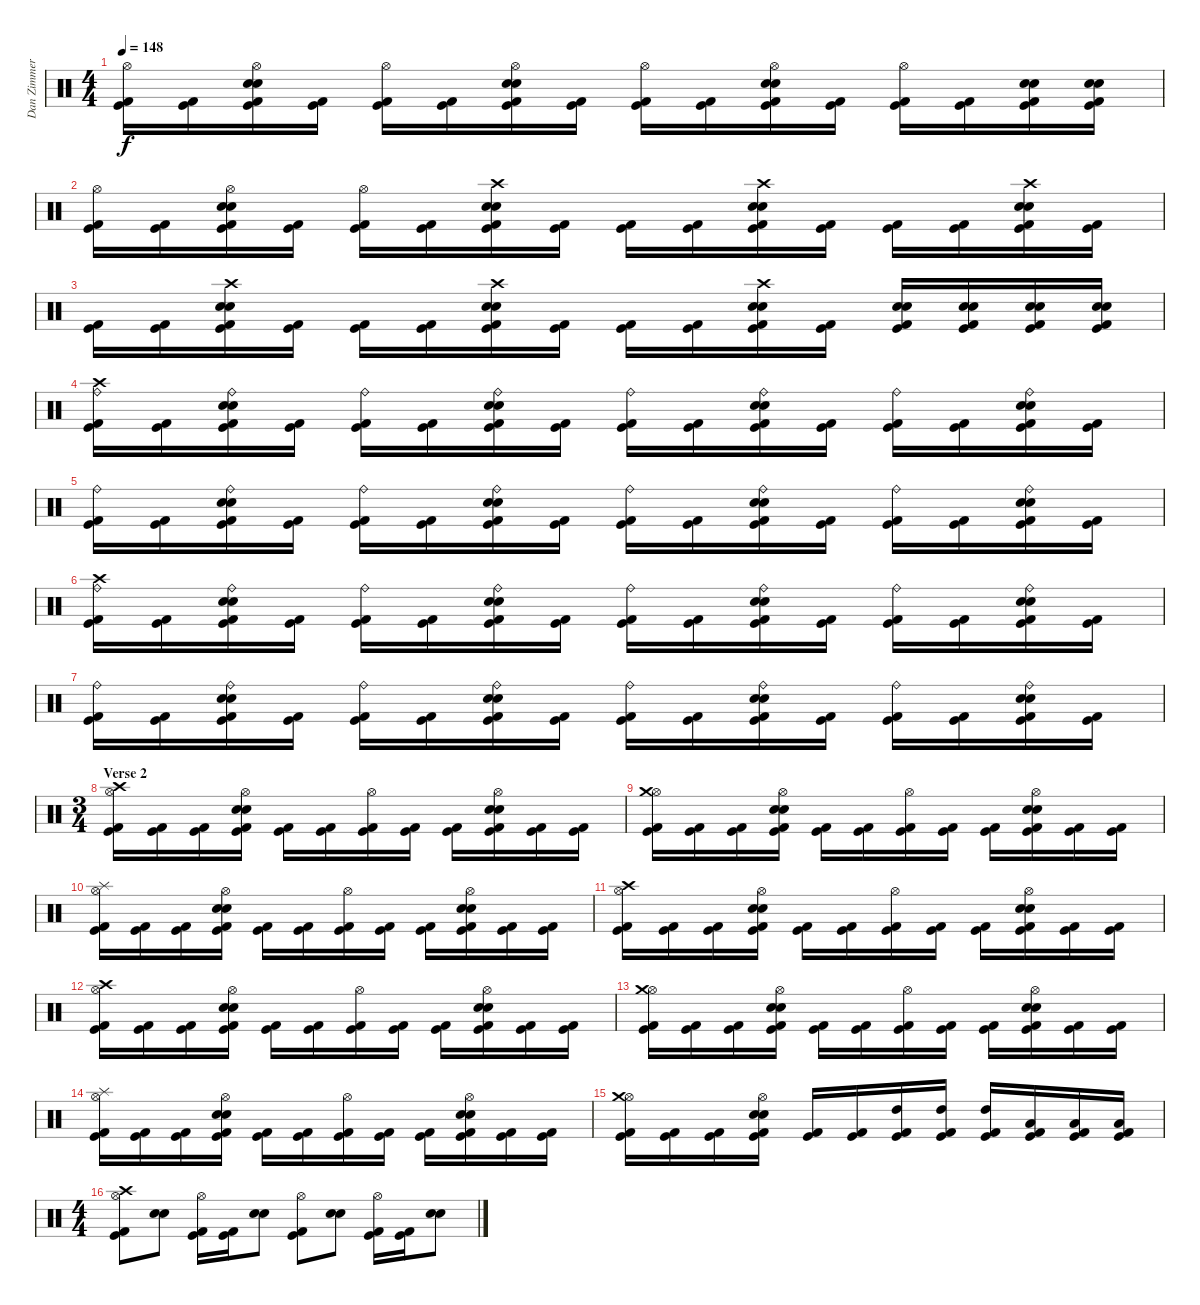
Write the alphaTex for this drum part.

\track ("Dan Zimmerman<Drum>" "Dan Zimmer") {instrument percussion}
\staff {score}
\articulation defaults
\ts (4 4)
\tempo 148
\clef neutral
\ks c
("Hi-Hat (open)" "Kick (hit) 2" "Kick (hit)").16{dy f} ("Kick (hit) 2" "Kick (hit)").16 ("Hi-Hat (open)" "Snare (hit) 2" "Electric Snare (hit)" "Kick (hit) 2" "Kick (hit)").16 ("Kick (hit) 2" "Kick (hit)").16 ("Hi-Hat (open)" "Kick (hit) 2" "Kick (hit)").16 ("Kick (hit) 2" "Kick (hit)").16 ("Hi-Hat (open)" "Snare (hit) 2" "Electric Snare (hit)" "Kick (hit) 2" "Kick (hit)").16 ("Kick (hit) 2" "Kick (hit)").16 ("Hi-Hat (open)" "Kick (hit) 2" "Kick (hit)").16 ("Kick (hit) 2" "Kick (hit)").16 ("Hi-Hat (open)" "Snare (hit) 2" "Electric Snare (hit)" "Kick (hit) 2" "Kick (hit)").16 ("Kick (hit) 2" "Kick (hit)").16 ("Hi-Hat (open)" "Kick (hit) 2" "Kick (hit)").16 ("Kick (hit) 2" "Kick (hit)").16 ("Snare (hit) 2" "Electric Snare (hit)" "Kick (hit) 2" "Kick (hit)").16 ("Snare (hit) 2" "Electric Snare (hit)" "Kick (hit) 2" "Kick (hit)").16 |
("Hi-Hat (open)" "Kick (hit) 2" "Kick (hit)").16 ("Kick (hit) 2" "Kick (hit)").16 ("Hi-Hat (open)" "Snare (hit) 2" "Electric Snare (hit)" "Kick (hit) 2" "Kick (hit)").16 ("Kick (hit) 2" "Kick (hit)").16 ("Hi-Hat (open)" "Kick (hit) 2" "Kick (hit)").16 ("Kick (hit) 2" "Kick (hit)").16 ("Crash high (hit)" "Snare (hit) 2" "Electric Snare (hit)" "Kick (hit) 2" "Kick (hit)").16 ("Kick (hit) 2" "Kick (hit)").16 ("Kick (hit) 2" "Kick (hit)").16 ("Kick (hit) 2" "Kick (hit)").16 ("Crash high (hit)" "Snare (hit) 2" "Electric Snare (hit)" "Kick (hit) 2" "Kick (hit)").16 ("Kick (hit) 2" "Kick (hit)").16 ("Kick (hit) 2" "Kick (hit)").16 ("Kick (hit) 2" "Kick (hit)").16 ("Crash high (hit)" "Snare (hit) 2" "Electric Snare (hit)" "Kick (hit) 2" "Kick (hit)").16 ("Kick (hit) 2" "Kick (hit)").16 |
("Kick (hit) 2" "Kick (hit)").16 ("Kick (hit) 2" "Kick (hit)").16 ("Crash high (hit)" "Snare (hit) 2" "Electric Snare (hit)" "Kick (hit) 2" "Kick (hit)").16 ("Kick (hit) 2" "Kick (hit)").16 ("Kick (hit) 2" "Kick (hit)").16 ("Kick (hit) 2" "Kick (hit)").16 ("Crash high (hit)" "Snare (hit) 2" "Electric Snare (hit)" "Kick (hit) 2" "Kick (hit)").16 ("Kick (hit) 2" "Kick (hit)").16 ("Kick (hit) 2" "Kick (hit)").16 ("Kick (hit) 2" "Kick (hit)").16 ("Crash high (hit)" "Snare (hit) 2" "Electric Snare (hit)" "Kick (hit) 2" "Kick (hit)").16 ("Kick (hit) 2" "Kick (hit)").16 ("Snare (hit) 2" "Electric Snare (hit)" "Kick (hit) 2" "Kick (hit)").16 ("Snare (hit) 2" "Electric Snare (hit)" "Kick (hit) 2" "Kick (hit)").16 ("Snare (hit) 2" "Electric Snare (hit)" "Kick (hit) 2" "Kick (hit)").16 ("Snare (hit) 2" "Electric Snare (hit)" "Kick (hit) 2" "Kick (hit)").16 |
("Ride (bell)" "Crash high (hit)" "Kick (hit) 2" "Kick (hit)").16 ("Kick (hit) 2" "Kick (hit)").16 ("Ride (bell)" "Snare (hit) 2" "Electric Snare (hit)" "Kick (hit) 2" "Kick (hit)").16 ("Kick (hit) 2" "Kick (hit)").16 ("Ride (bell)" "Kick (hit) 2" "Kick (hit)").16 ("Kick (hit) 2" "Kick (hit)").16 ("Ride (bell)" "Snare (hit) 2" "Electric Snare (hit)" "Kick (hit) 2" "Kick (hit)").16 ("Kick (hit) 2" "Kick (hit)").16 ("Ride (bell)" "Kick (hit) 2" "Kick (hit)").16 ("Kick (hit) 2" "Kick (hit)").16 ("Ride (bell)" "Snare (hit) 2" "Electric Snare (hit)" "Kick (hit) 2" "Kick (hit)").16 ("Kick (hit) 2" "Kick (hit)").16 ("Ride (bell)" "Kick (hit) 2" "Kick (hit)").16 ("Kick (hit) 2" "Kick (hit)").16 ("Ride (bell)" "Snare (hit) 2" "Electric Snare (hit)" "Kick (hit) 2" "Kick (hit)").16 ("Kick (hit) 2" "Kick (hit)").16 |
("Ride (bell)" "Kick (hit) 2" "Kick (hit)").16 ("Kick (hit) 2" "Kick (hit)").16 ("Ride (bell)" "Snare (hit) 2" "Electric Snare (hit)" "Kick (hit) 2" "Kick (hit)").16 ("Kick (hit) 2" "Kick (hit)").16 ("Ride (bell)" "Kick (hit) 2" "Kick (hit)").16 ("Kick (hit) 2" "Kick (hit)").16 ("Ride (bell)" "Snare (hit) 2" "Electric Snare (hit)" "Kick (hit) 2" "Kick (hit)").16 ("Kick (hit) 2" "Kick (hit)").16 ("Ride (bell)" "Kick (hit) 2" "Kick (hit)").16 ("Kick (hit) 2" "Kick (hit)").16 ("Ride (bell)" "Snare (hit) 2" "Electric Snare (hit)" "Kick (hit) 2" "Kick (hit)").16 ("Kick (hit) 2" "Kick (hit)").16 ("Ride (bell)" "Kick (hit) 2" "Kick (hit)").16 ("Kick (hit) 2" "Kick (hit)").16 ("Ride (bell)" "Snare (hit) 2" "Electric Snare (hit)" "Kick (hit) 2" "Kick (hit)").16 ("Kick (hit) 2" "Kick (hit)").16 |
("Ride (bell)" "Crash high (hit)" "Kick (hit) 2" "Kick (hit)").16 ("Kick (hit) 2" "Kick (hit)").16 ("Ride (bell)" "Snare (hit) 2" "Electric Snare (hit)" "Kick (hit) 2" "Kick (hit)").16 ("Kick (hit) 2" "Kick (hit)").16 ("Ride (bell)" "Kick (hit) 2" "Kick (hit)").16 ("Kick (hit) 2" "Kick (hit)").16 ("Ride (bell)" "Snare (hit) 2" "Electric Snare (hit)" "Kick (hit) 2" "Kick (hit)").16 ("Kick (hit) 2" "Kick (hit)").16 ("Ride (bell)" "Kick (hit) 2" "Kick (hit)").16 ("Kick (hit) 2" "Kick (hit)").16 ("Ride (bell)" "Snare (hit) 2" "Electric Snare (hit)" "Kick (hit) 2" "Kick (hit)").16 ("Kick (hit) 2" "Kick (hit)").16 ("Ride (bell)" "Kick (hit) 2" "Kick (hit)").16 ("Kick (hit) 2" "Kick (hit)").16 ("Ride (bell)" "Snare (hit) 2" "Electric Snare (hit)" "Kick (hit) 2" "Kick (hit)").16 ("Kick (hit) 2" "Kick (hit)").16 |
("Ride (bell)" "Kick (hit) 2" "Kick (hit)").16 ("Kick (hit) 2" "Kick (hit)").16 ("Ride (bell)" "Snare (hit) 2" "Electric Snare (hit)" "Kick (hit) 2" "Kick (hit)").16 ("Kick (hit) 2" "Kick (hit)").16 ("Ride (bell)" "Kick (hit) 2" "Kick (hit)").16 ("Kick (hit) 2" "Kick (hit)").16 ("Ride (bell)" "Snare (hit) 2" "Electric Snare (hit)" "Kick (hit) 2" "Kick (hit)").16 ("Kick (hit) 2" "Kick (hit)").16 ("Ride (bell)" "Kick (hit) 2" "Kick (hit)").16 ("Kick (hit) 2" "Kick (hit)").16 ("Ride (bell)" "Snare (hit) 2" "Electric Snare (hit)" "Kick (hit) 2" "Kick (hit)").16 ("Kick (hit) 2" "Kick (hit)").16 ("Ride (bell)" "Kick (hit) 2" "Kick (hit)").16 ("Kick (hit) 2" "Kick (hit)").16 ("Ride (bell)" "Snare (hit) 2" "Electric Snare (hit)" "Kick (hit) 2" "Kick (hit)").16 ("Kick (hit) 2" "Kick (hit)").16 |
\ts (3 4)
\section ("" "Verse 2")
("Hi-Hat (open)" "Crash high (hit)" "Kick (hit) 2" "Kick (hit)").16 ("Kick (hit) 2" "Kick (hit)").16 ("Kick (hit) 2" "Kick (hit)").16 ("Hi-Hat (open)" "Electric Snare (hit)" "Snare (hit) 2" "Kick (hit) 2" "Kick (hit)").16 ("Kick (hit) 2" "Kick (hit)").16 ("Kick (hit) 2" "Kick (hit)").16 ("Hi-Hat (open)" "Kick (hit) 2" "Kick (hit)").16 ("Kick (hit) 2" "Kick (hit)").16 ("Kick (hit) 2" "Kick (hit)").16 ("Hi-Hat (open)" "Electric Snare (hit)" "Snare (hit) 2" "Kick (hit) 2" "Kick (hit)").16 ("Kick (hit) 2" "Kick (hit)").16 ("Kick (hit) 2" "Kick (hit)").16 |
("Hi-Hat (open)" "Crash medium (hit)" "Kick (hit) 2" "Kick (hit)").16 ("Kick (hit) 2" "Kick (hit)").16 ("Kick (hit) 2" "Kick (hit)").16 ("Hi-Hat (open)" "Electric Snare (hit)" "Snare (hit) 2" "Kick (hit) 2" "Kick (hit)").16 ("Kick (hit) 2" "Kick (hit)").16 ("Kick (hit) 2" "Kick (hit)").16 ("Hi-Hat (open)" "Kick (hit) 2" "Kick (hit)").16 ("Kick (hit) 2" "Kick (hit)").16 ("Kick (hit) 2" "Kick (hit)").16 ("Hi-Hat (open)" "Electric Snare (hit)" "Snare (hit) 2" "Kick (hit) 2" "Kick (hit)").16 ("Kick (hit) 2" "Kick (hit)").16 ("Kick (hit) 2" "Kick (hit)").16 |
("Hi-Hat (open)" "Splash (hit)" "Kick (hit) 2" "Kick (hit)").16 ("Kick (hit) 2" "Kick (hit)").16 ("Kick (hit) 2" "Kick (hit)").16 ("Hi-Hat (open)" "Electric Snare (hit)" "Snare (hit) 2" "Kick (hit) 2" "Kick (hit)").16 ("Kick (hit) 2" "Kick (hit)").16 ("Kick (hit) 2" "Kick (hit)").16 ("Hi-Hat (open)" "Kick (hit) 2" "Kick (hit)").16 ("Kick (hit) 2" "Kick (hit)").16 ("Kick (hit) 2" "Kick (hit)").16 ("Hi-Hat (open)" "Electric Snare (hit)" "Snare (hit) 2" "Kick (hit) 2" "Kick (hit)").16 ("Kick (hit) 2" "Kick (hit)").16 ("Kick (hit) 2" "Kick (hit)").16 |
("Hi-Hat (open)" "Crash high (hit)" "Kick (hit) 2" "Kick (hit)").16 ("Kick (hit) 2" "Kick (hit)").16 ("Kick (hit) 2" "Kick (hit)").16 ("Hi-Hat (open)" "Electric Snare (hit)" "Snare (hit) 2" "Kick (hit) 2" "Kick (hit)").16 ("Kick (hit) 2" "Kick (hit)").16 ("Kick (hit) 2" "Kick (hit)").16 ("Hi-Hat (open)" "Kick (hit) 2" "Kick (hit)").16 ("Kick (hit) 2" "Kick (hit)").16 ("Kick (hit) 2" "Kick (hit)").16 ("Hi-Hat (open)" "Electric Snare (hit)" "Snare (hit) 2" "Kick (hit) 2" "Kick (hit)").16 ("Kick (hit) 2" "Kick (hit)").16 ("Kick (hit) 2" "Kick (hit)").16 |
("Hi-Hat (open)" "Crash high (hit)" "Kick (hit) 2" "Kick (hit)").16 ("Kick (hit) 2" "Kick (hit)").16 ("Kick (hit) 2" "Kick (hit)").16 ("Hi-Hat (open)" "Electric Snare (hit)" "Snare (hit) 2" "Kick (hit) 2" "Kick (hit)").16 ("Kick (hit) 2" "Kick (hit)").16 ("Kick (hit) 2" "Kick (hit)").16 ("Hi-Hat (open)" "Kick (hit) 2" "Kick (hit)").16 ("Kick (hit) 2" "Kick (hit)").16 ("Kick (hit) 2" "Kick (hit)").16 ("Hi-Hat (open)" "Electric Snare (hit)" "Snare (hit) 2" "Kick (hit) 2" "Kick (hit)").16 ("Kick (hit) 2" "Kick (hit)").16 ("Kick (hit) 2" "Kick (hit)").16 |
("Hi-Hat (open)" "Crash medium (hit)" "Kick (hit) 2" "Kick (hit)").16 ("Kick (hit) 2" "Kick (hit)").16 ("Kick (hit) 2" "Kick (hit)").16 ("Hi-Hat (open)" "Electric Snare (hit)" "Snare (hit) 2" "Kick (hit) 2" "Kick (hit)").16 ("Kick (hit) 2" "Kick (hit)").16 ("Kick (hit) 2" "Kick (hit)").16 ("Hi-Hat (open)" "Kick (hit) 2" "Kick (hit)").16 ("Kick (hit) 2" "Kick (hit)").16 ("Kick (hit) 2" "Kick (hit)").16 ("Hi-Hat (open)" "Electric Snare (hit)" "Snare (hit) 2" "Kick (hit) 2" "Kick (hit)").16 ("Kick (hit) 2" "Kick (hit)").16 ("Kick (hit) 2" "Kick (hit)").16 |
("Hi-Hat (open)" "Splash (hit)" "Kick (hit) 2" "Kick (hit)").16 ("Kick (hit) 2" "Kick (hit)").16 ("Kick (hit) 2" "Kick (hit)").16 ("Hi-Hat (open)" "Electric Snare (hit)" "Snare (hit) 2" "Kick (hit) 2" "Kick (hit)").16 ("Kick (hit) 2" "Kick (hit)").16 ("Kick (hit) 2" "Kick (hit)").16 ("Hi-Hat (open)" "Kick (hit) 2" "Kick (hit)").16 ("Kick (hit) 2" "Kick (hit)").16 ("Kick (hit) 2" "Kick (hit)").16 ("Hi-Hat (open)" "Electric Snare (hit)" "Snare (hit) 2" "Kick (hit) 2" "Kick (hit)").16 ("Kick (hit) 2" "Kick (hit)").16 ("Kick (hit) 2" "Kick (hit)").16 |
("Hi-Hat (open)" "Crash medium (hit)" "Kick (hit) 2" "Kick (hit)").16 ("Kick (hit) 2" "Kick (hit)").16 ("Kick (hit) 2" "Kick (hit)").16 ("Hi-Hat (open)" "Electric Snare (hit)" "Snare (hit) 2" "Kick (hit) 2" "Kick (hit)").16 ("Kick (hit) 2" "Kick (hit)").16 ("Kick (hit) 2" "Kick (hit)").16 ("High Tom (hit)" "Kick (hit) 2" "Kick (hit)").16 ("High Tom (hit)" "Kick (hit) 2" "Kick (hit)").16 ("High Tom (hit)" "Kick (hit) 2" "Kick (hit)").16 ("Low Tom (hit)" "Kick (hit) 2" "Kick (hit)").16 ("Low Tom (hit)" "Kick (hit) 2" "Kick (hit)").16 ("Low Tom (hit)" "Kick (hit) 2" "Kick (hit)").16 |
\ts (4 4)
("Hi-Hat (open)" "Crash high (hit)" "Kick (hit) 2" "Kick (hit)").8 ("Snare (hit) 2" "Electric Snare (hit)").8 ("Hi-Hat (open)" "Kick (hit) 2" "Kick (hit)").16 ("Kick (hit) 2" "Kick (hit)").16 ("Snare (hit) 2" "Electric Snare (hit)").8 ("Hi-Hat (open)" "Kick (hit) 2" "Kick (hit)").8 ("Snare (hit) 2" "Electric Snare (hit)").8 ("Hi-Hat (open)" "Kick (hit) 2" "Kick (hit)").16 ("Kick (hit) 2" "Kick (hit)").16 ("Snare (hit) 2" "Electric Snare (hit)").8
